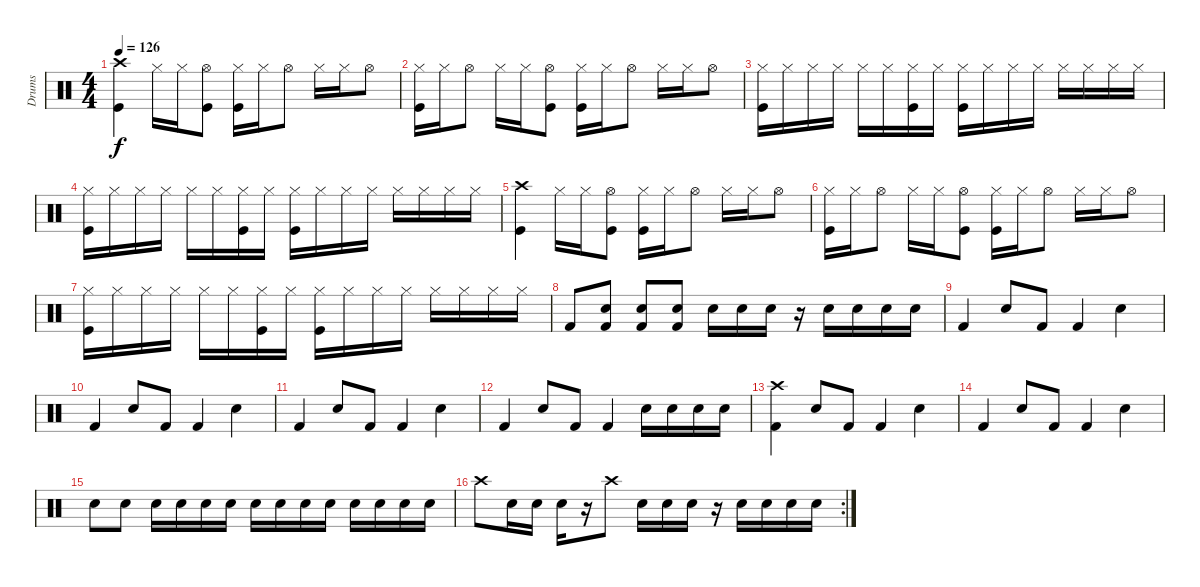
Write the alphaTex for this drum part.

\track ("Drums" "Drums") {instrument percussion}
\staff {score}
\articulation defaults
\ts (4 4)
\tempo 126
\clef neutral
\ks c
("Crash high (hit)" "Kick (hit)").4{dy f} "Hi-Hat (closed)".16 "Hi-Hat (closed)".16 ("Kick (hit)" "Hi-Hat (open)").8 ("Hi-Hat (closed)" "Kick (hit)").16 "Hi-Hat (closed)".16 "Hi-Hat (open)".8 "Hi-Hat (closed)".16 "Hi-Hat (closed)".16 "Hi-Hat (open)".8 |
("Hi-Hat (closed)" "Kick (hit)").16 "Hi-Hat (closed)".16 "Hi-Hat (open)".8 "Hi-Hat (closed)".16 "Hi-Hat (closed)".16 ("Kick (hit)" "Hi-Hat (open)").8 ("Hi-Hat (closed)" "Kick (hit)").16 "Hi-Hat (closed)".16 "Hi-Hat (open)".8 "Hi-Hat (closed)".16 "Hi-Hat (closed)".16 "Hi-Hat (open)".8 |
("Hi-Hat (closed)" "Kick (hit)").16 "Hi-Hat (closed)".16 "Hi-Hat (closed)".16 "Hi-Hat (closed)".16 "Hi-Hat (closed)".16 "Hi-Hat (closed)".16 ("Hi-Hat (closed)" "Kick (hit)").16 "Hi-Hat (closed)".16 ("Hi-Hat (closed)" "Kick (hit)").16 "Hi-Hat (closed)".16 "Hi-Hat (closed)".16 "Hi-Hat (closed)".16 "Hi-Hat (closed)".16 "Hi-Hat (closed)".16 "Hi-Hat (closed)".16 "Hi-Hat (closed)".16 |
("Hi-Hat (closed)" "Kick (hit)").16 "Hi-Hat (closed)".16 "Hi-Hat (closed)".16 "Hi-Hat (closed)".16 "Hi-Hat (closed)".16 "Hi-Hat (closed)".16 ("Hi-Hat (closed)" "Kick (hit)").16 "Hi-Hat (closed)".16 ("Hi-Hat (closed)" "Kick (hit)").16 "Hi-Hat (closed)".16 "Hi-Hat (closed)".16 "Hi-Hat (closed)".16 "Hi-Hat (closed)".16 "Hi-Hat (closed)".16 "Hi-Hat (closed)".16 "Hi-Hat (closed)".16 |
("Crash high (hit)" "Kick (hit)").4 "Hi-Hat (closed)".16 "Hi-Hat (closed)".16 ("Kick (hit)" "Hi-Hat (open)").8 ("Hi-Hat (closed)" "Kick (hit)").16 "Hi-Hat (closed)".16 "Hi-Hat (open)".8 "Hi-Hat (closed)".16 "Hi-Hat (closed)".16 "Hi-Hat (open)".8 |
("Hi-Hat (closed)" "Kick (hit)").16 "Hi-Hat (closed)".16 "Hi-Hat (open)".8 "Hi-Hat (closed)".16 "Hi-Hat (closed)".16 ("Kick (hit)" "Hi-Hat (open)").8 ("Hi-Hat (closed)" "Kick (hit)").16 "Hi-Hat (closed)".16 "Hi-Hat (open)".8 "Hi-Hat (closed)".16 "Hi-Hat (closed)".16 "Hi-Hat (open)".8 |
("Hi-Hat (closed)" "Kick (hit)").16 "Hi-Hat (closed)".16 "Hi-Hat (closed)".16 "Hi-Hat (closed)".16 "Hi-Hat (closed)".16 "Hi-Hat (closed)".16 ("Hi-Hat (closed)" "Kick (hit)").16 "Hi-Hat (closed)".16 ("Hi-Hat (closed)" "Kick (hit)").16 "Hi-Hat (closed)".16 "Hi-Hat (closed)".16 "Hi-Hat (closed)".16 "Hi-Hat (closed)".16 "Hi-Hat (closed)".16 "Hi-Hat (closed)".16 "Hi-Hat (closed)".16 |
"Kick (hit) 2".8 ("Snare (hit) 2" "Kick (hit) 2").8 ("Kick (hit) 2" "Snare (hit) 2").8 ("Kick (hit) 2" "Snare (hit) 2").8 "Snare (hit) 2".16 "Snare (hit) 2".16 "Snare (hit) 2".16 r.16 "Snare (hit) 2".16 "Snare (hit) 2".16 "Snare (hit) 2".16 "Snare (hit) 2".16 |
"Kick (hit) 2".4 "Snare (hit) 2".8 "Kick (hit) 2".8 "Kick (hit) 2".4 "Snare (hit) 2".4 |
"Kick (hit) 2".4 "Snare (hit) 2".8 "Kick (hit) 2".8 "Kick (hit) 2".4 "Snare (hit) 2".4 |
"Kick (hit) 2".4 "Snare (hit) 2".8 "Kick (hit) 2".8 "Kick (hit) 2".4 "Snare (hit) 2".4 |
"Kick (hit) 2".4 "Snare (hit) 2".8 "Kick (hit) 2".8 "Kick (hit) 2".4 "Snare (hit) 2".16 "Snare (hit) 2".16 "Snare (hit) 2".16 "Snare (hit) 2".16 |
("Kick (hit) 2" "Crash high (hit)").4 "Snare (hit) 2".8 "Kick (hit) 2".8 "Kick (hit) 2".4 "Snare (hit) 2".4 |
"Kick (hit) 2".4 "Snare (hit) 2".8 "Kick (hit) 2".8 "Kick (hit) 2".4 "Snare (hit) 2".4 |
"Snare (hit) 2".8 "Snare (hit) 2".8 "Snare (hit) 2".16 "Snare (hit) 2".16 "Snare (hit) 2".16 "Snare (hit) 2".16 "Snare (hit) 2".16 "Snare (hit) 2".16 "Snare (hit) 2".16 "Snare (hit) 2".16 "Snare (hit) 2".16 "Snare (hit) 2".16 "Snare (hit) 2".16 "Snare (hit) 2".16 |
\rc 2 "Crash high (hit)".8 "Snare (hit) 2".16 "Snare (hit) 2".16 "Snare (hit) 2".16
r.16 "Crash high (hit)".8 "Snare (hit) 2".16 "Snare (hit) 2".16 "Snare (hit) 2".16 r.16 "Snare (hit) 2".16 "Snare (hit) 2".16 "Snare (hit) 2".16 "Snare (hit) 2".16
